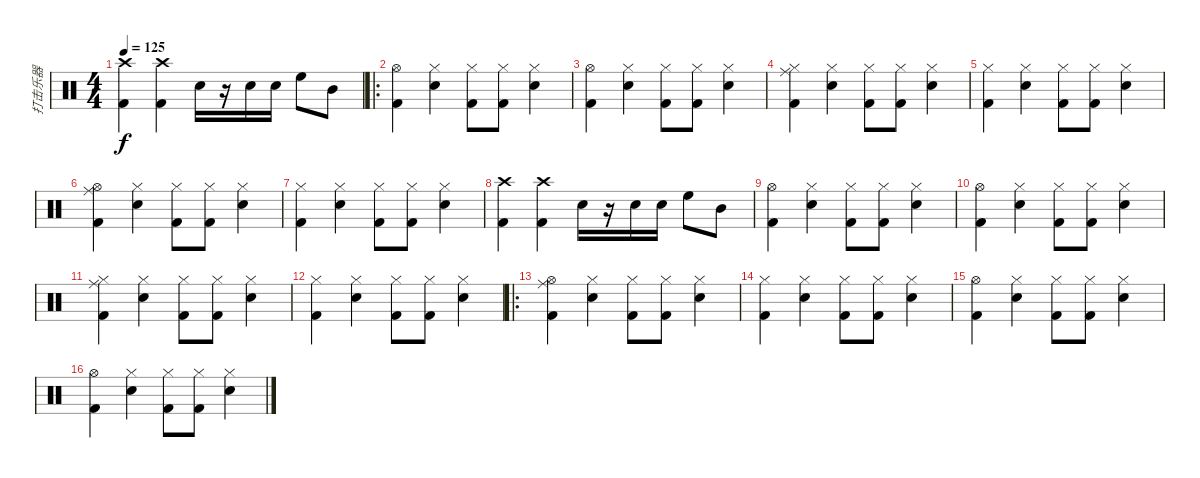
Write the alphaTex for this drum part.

\track ("打击乐器" "打击乐器") {instrument percussion}
\staff {score}
\articulation defaults
\ts (4 4)
\tempo 125
\clef neutral
\ks c
("Kick (hit) 2" "Crash high (hit)").4{dy f} ("Crash high (hit)" "Kick (hit) 2").4 "Snare (hit) 2".16 r.16 "Snare (hit) 2".16 "Snare (hit) 2".16 "High Floor Tom (hit)".8 "Mid Tom (hit)".8 |
\ro
("Hi-Hat (open)" "Kick (hit) 2").4 ("Hi-Hat (closed)" "Snare (hit) 2").4 ("Hi-Hat (closed)" "Kick (hit) 2").8 ("Hi-Hat (closed)" "Kick (hit) 2").8 ("Hi-Hat (closed)" "Snare (hit) 2").4 |
("Hi-Hat (open)" "Kick (hit) 2").4 ("Hi-Hat (closed)" "Snare (hit) 2").4 ("Hi-Hat (closed)" "Kick (hit) 2").8 ("Hi-Hat (closed)" "Kick (hit) 2").8 ("Hi-Hat (closed)" "Snare (hit) 2").4 |
("Ride (middle)" "Hi-Hat (closed)" "Kick (hit) 2").4 ("Hi-Hat (closed)" "Snare (hit) 2").4 ("Hi-Hat (closed)" "Kick (hit) 2").8 ("Hi-Hat (closed)" "Kick (hit) 2").8 ("Hi-Hat (closed)" "Snare (hit) 2").4 |
("Hi-Hat (closed)" "Kick (hit) 2").4 ("Hi-Hat (closed)" "Snare (hit) 2").4 ("Hi-Hat (closed)" "Kick (hit) 2").8 ("Hi-Hat (closed)" "Kick (hit) 2").8 ("Hi-Hat (closed)" "Snare (hit) 2").4 |
("Ride (middle)" "Hi-Hat (open)" "Kick (hit) 2").4 ("Hi-Hat (closed)" "Snare (hit) 2").4 ("Hi-Hat (closed)" "Kick (hit) 2").8 ("Hi-Hat (closed)" "Kick (hit) 2").8 ("Hi-Hat (closed)" "Snare (hit) 2").4 |
("Hi-Hat (closed)" "Kick (hit) 2").4 ("Hi-Hat (closed)" "Snare (hit) 2").4 ("Hi-Hat (closed)" "Kick (hit) 2").8 ("Hi-Hat (closed)" "Kick (hit) 2").8 ("Hi-Hat (closed)" "Snare (hit) 2").4 |
("Kick (hit) 2" "Crash high (hit)").4 ("Crash high (hit)" "Kick (hit) 2").4 "Snare (hit) 2".16 r.16 "Snare (hit) 2".16 "Snare (hit) 2".16 "High Floor Tom (hit)".8 "Mid Tom (hit)".8 |
("Hi-Hat (open)" "Kick (hit) 2").4 ("Hi-Hat (closed)" "Snare (hit) 2").4 ("Hi-Hat (closed)" "Kick (hit) 2").8 ("Hi-Hat (closed)" "Kick (hit) 2").8 ("Hi-Hat (closed)" "Snare (hit) 2").4 |
("Hi-Hat (open)" "Kick (hit) 2").4 ("Hi-Hat (closed)" "Snare (hit) 2").4 ("Hi-Hat (closed)" "Kick (hit) 2").8 ("Hi-Hat (closed)" "Kick (hit) 2").8 ("Hi-Hat (closed)" "Snare (hit) 2").4 |
("Ride (middle)" "Hi-Hat (closed)" "Kick (hit) 2").4 ("Hi-Hat (closed)" "Snare (hit) 2").4 ("Hi-Hat (closed)" "Kick (hit) 2").8 ("Hi-Hat (closed)" "Kick (hit) 2").8 ("Hi-Hat (closed)" "Snare (hit) 2").4 |
("Hi-Hat (closed)" "Kick (hit) 2").4 ("Hi-Hat (closed)" "Snare (hit) 2").4 ("Hi-Hat (closed)" "Kick (hit) 2").8 ("Hi-Hat (closed)" "Kick (hit) 2").8 ("Hi-Hat (closed)" "Snare (hit) 2").4 |
\ro
("Ride (middle)" "Hi-Hat (open)" "Kick (hit) 2").4 ("Hi-Hat (closed)" "Snare (hit) 2").4 ("Hi-Hat (closed)" "Kick (hit) 2").8 ("Hi-Hat (closed)" "Kick (hit) 2").8 ("Hi-Hat (closed)" "Snare (hit) 2").4 |
("Hi-Hat (closed)" "Kick (hit) 2").4 ("Hi-Hat (closed)" "Snare (hit) 2").4 ("Hi-Hat (closed)" "Kick (hit) 2").8 ("Hi-Hat (closed)" "Kick (hit) 2").8 ("Hi-Hat (closed)" "Snare (hit) 2").4 |
("Hi-Hat (open)" "Kick (hit) 2").4 ("Hi-Hat (closed)" "Snare (hit) 2").4 ("Hi-Hat (closed)" "Kick (hit) 2").8 ("Hi-Hat (closed)" "Kick (hit) 2").8 ("Hi-Hat (closed)" "Snare (hit) 2").4 |
("Hi-Hat (open)" "Kick (hit) 2").4 ("Hi-Hat (closed)" "Snare (hit) 2").4 ("Hi-Hat (closed)" "Kick (hit) 2").8 ("Hi-Hat (closed)" "Kick (hit) 2").8 ("Hi-Hat (closed)" "Snare (hit) 2").4
